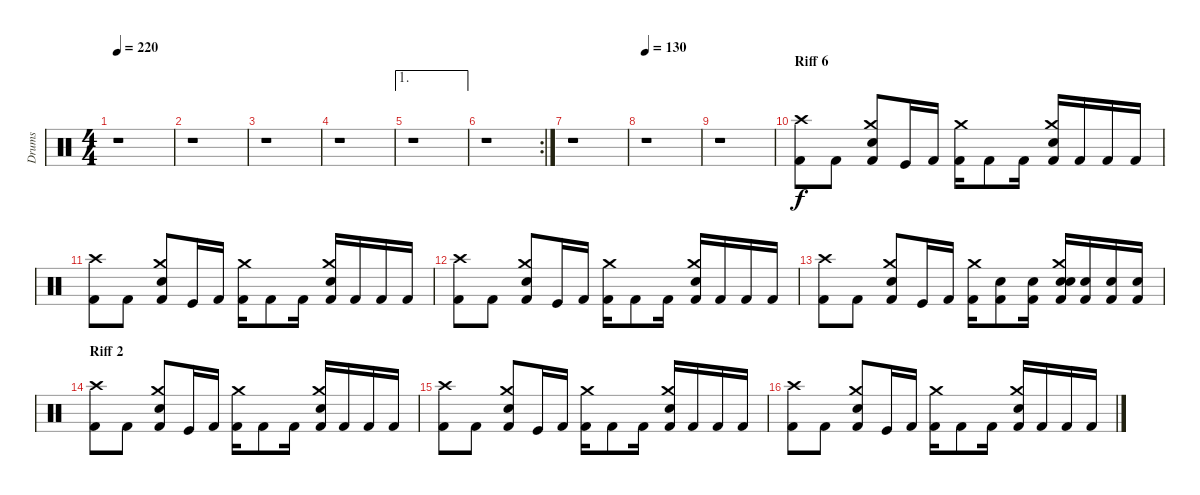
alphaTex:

\track ("Drums" "Drums") {instrument percussion}
\staff {score}
\articulation defaults
\ts (4 4)
\tempo 220
\clef neutral
\ks c
r.1{dy f} |
r.1 |
r.1 |
r.1 |
\ae 1
r.1 |
\rc 2
r.1 |
r.1 |
\tempo 130
r.1 |
r.1 |
\section ("" "Riff 6")
("Crash high (hit)" "Kick (hit) 2").8 "Kick (hit) 2".8 ("Crash medium (hit)" "Electric Snare (hit)" "Kick (hit) 2").8 "Kick (hit)".16 "Kick (hit) 2".16 ("Crash medium (hit)" "Kick (hit) 2").16 "Kick (hit) 2".8 "Kick (hit) 2".16 ("Crash medium (hit)" "Electric Snare (hit)" "Kick (hit) 2").16 "Kick (hit) 2".16 "Kick (hit) 2".16 "Kick (hit) 2".16 |
("Crash high (hit)" "Kick (hit) 2").8 "Kick (hit) 2".8 ("Crash medium (hit)" "Electric Snare (hit)" "Kick (hit) 2").8 "Kick (hit)".16 "Kick (hit) 2".16 ("Crash medium (hit)" "Kick (hit) 2").16 "Kick (hit) 2".8 "Kick (hit) 2".16 ("Crash medium (hit)" "Electric Snare (hit)" "Kick (hit) 2").16 "Kick (hit) 2".16 "Kick (hit) 2".16 "Kick (hit) 2".16 |
("Crash high (hit)" "Kick (hit) 2").8 "Kick (hit) 2".8 ("Crash medium (hit)" "Electric Snare (hit)" "Kick (hit) 2").8 "Kick (hit)".16 "Kick (hit) 2".16 ("Crash medium (hit)" "Kick (hit) 2").16 "Kick (hit) 2".8 "Kick (hit) 2".16 ("Crash medium (hit)" "Electric Snare (hit)" "Kick (hit) 2").16 "Kick (hit) 2".16 "Kick (hit) 2".16 "Kick (hit) 2".16 |
("Crash high (hit)" "Kick (hit) 2").8 "Kick (hit) 2".8 ("Crash medium (hit)" "Electric Snare (hit)" "Kick (hit) 2").8 "Kick (hit)".16 "Kick (hit) 2".16 ("Crash medium (hit)" "Kick (hit) 2").16 ("Electric Snare (hit)" "Kick (hit) 2").8 ("Electric Snare (hit)" "Kick (hit) 2").16 ("Crash medium (hit)" "Electric Snare (hit)" "Electric Snare (hit)" "Kick (hit) 2").16 ("Electric Snare (hit)" "Kick (hit) 2").16 ("Electric Snare (hit)" "Kick (hit) 2").16 ("Electric Snare (hit)" "Kick (hit) 2").16 |
\section ("" "Riff 2")
("Crash high (hit)" "Kick (hit) 2").8 "Kick (hit) 2".8 ("Crash medium (hit)" "Electric Snare (hit)" "Kick (hit) 2").8 "Kick (hit)".16 "Kick (hit) 2".16 ("Crash medium (hit)" "Kick (hit) 2").16 "Kick (hit) 2".8 "Kick (hit) 2".16 ("Crash medium (hit)" "Electric Snare (hit)" "Kick (hit) 2").16 "Kick (hit) 2".16 "Kick (hit) 2".16 "Kick (hit) 2".16 |
("Crash high (hit)" "Kick (hit) 2").8 "Kick (hit) 2".8 ("Crash medium (hit)" "Electric Snare (hit)" "Kick (hit) 2").8 "Kick (hit)".16 "Kick (hit) 2".16 ("Crash medium (hit)" "Kick (hit) 2").16 "Kick (hit) 2".8 "Kick (hit) 2".16 ("Crash medium (hit)" "Electric Snare (hit)" "Kick (hit) 2").16 "Kick (hit) 2".16 "Kick (hit) 2".16 "Kick (hit) 2".16 |
("Crash high (hit)" "Kick (hit) 2").8 "Kick (hit) 2".8 ("Crash medium (hit)" "Electric Snare (hit)" "Kick (hit) 2").8 "Kick (hit)".16 "Kick (hit) 2".16 ("Crash medium (hit)" "Kick (hit) 2").16 "Kick (hit) 2".8 "Kick (hit) 2".16 ("Crash medium (hit)" "Electric Snare (hit)" "Kick (hit) 2").16 "Kick (hit) 2".16 "Kick (hit) 2".16 "Kick (hit) 2".16
